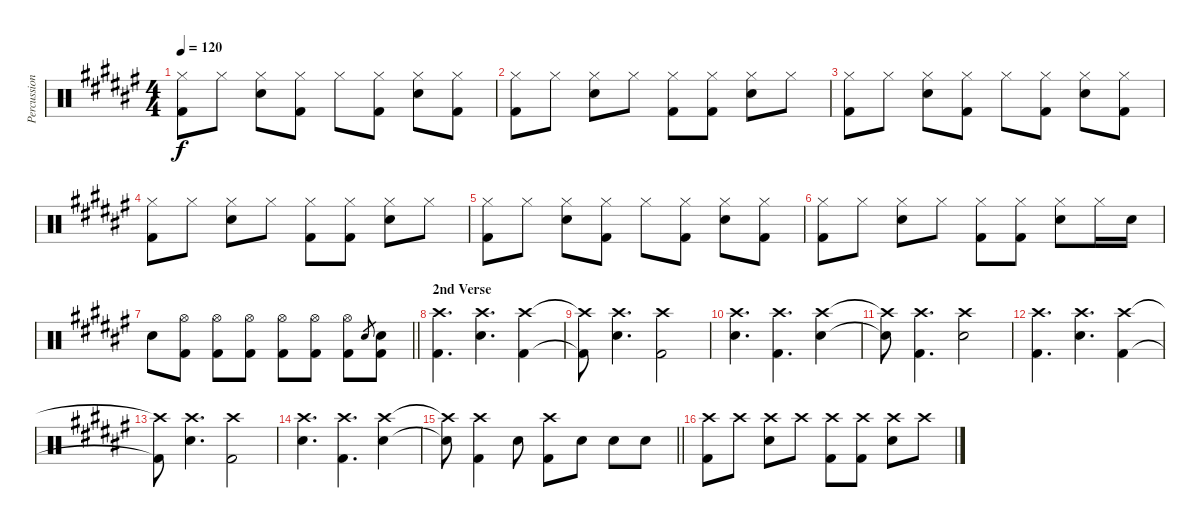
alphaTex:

\track ("Percussion" "Percussion") {instrument percussion}
\staff {score}
\articulation defaults
\ts (4 4)
\tempo 120
\clef neutral
\ks f#
("Hi-Hat (closed)" "Kick (hit) 2").8{dy f} "Hi-Hat (closed)".8 ("Hi-Hat (closed)" "Electric Snare (hit)").8 ("Hi-Hat (closed)" "Kick (hit) 2").8 "Hi-Hat (closed)".8 ("Hi-Hat (closed)" "Kick (hit) 2").8 ("Hi-Hat (closed)" "Electric Snare (hit)").8 ("Hi-Hat (closed)" "Kick (hit) 2").8 |
("Hi-Hat (closed)" "Kick (hit) 2").8 "Hi-Hat (closed)".8 ("Hi-Hat (closed)" "Electric Snare (hit)").8 "Hi-Hat (closed)".8 ("Hi-Hat (closed)" "Kick (hit) 2").8 ("Hi-Hat (closed)" "Kick (hit) 2").8 ("Hi-Hat (closed)" "Electric Snare (hit)").8 "Hi-Hat (closed)".8 |
("Hi-Hat (closed)" "Kick (hit) 2").8 "Hi-Hat (closed)".8 ("Hi-Hat (closed)" "Electric Snare (hit)").8 ("Hi-Hat (closed)" "Kick (hit) 2").8 "Hi-Hat (closed)".8 ("Hi-Hat (closed)" "Kick (hit) 2").8 ("Hi-Hat (closed)" "Electric Snare (hit)").8 ("Hi-Hat (closed)" "Kick (hit) 2").8 |
("Hi-Hat (closed)" "Kick (hit) 2").8 "Hi-Hat (closed)".8 ("Hi-Hat (closed)" "Electric Snare (hit)").8 "Hi-Hat (closed)".8 ("Hi-Hat (closed)" "Kick (hit) 2").8 ("Hi-Hat (closed)" "Kick (hit) 2").8 ("Hi-Hat (closed)" "Electric Snare (hit)").8 "Hi-Hat (closed)".8 |
("Hi-Hat (closed)" "Kick (hit) 2").8 "Hi-Hat (closed)".8 ("Hi-Hat (closed)" "Electric Snare (hit)").8 ("Hi-Hat (closed)" "Kick (hit) 2").8 "Hi-Hat (closed)".8 ("Hi-Hat (closed)" "Kick (hit) 2").8 ("Hi-Hat (closed)" "Electric Snare (hit)").8 ("Hi-Hat (closed)" "Kick (hit) 2").8 |
("Hi-Hat (closed)" "Kick (hit) 2").8 "Hi-Hat (closed)".8 ("Hi-Hat (closed)" "Electric Snare (hit)").8 "Hi-Hat (closed)".8 ("Hi-Hat (closed)" "Kick (hit) 2").8 ("Hi-Hat (closed)" "Kick (hit) 2").8 ("Hi-Hat (closed)" "Electric Snare (hit)").8 "Hi-Hat (closed)".16 "Electric Snare (hit)".16 |
\barLineRight lightlight "Electric Snare (hit)".8
("Hi-Hat (open)" "Kick (hit) 2").8 ("Hi-Hat (open)" "Kick (hit) 2").8 ("Hi-Hat (open)" "Kick (hit) 2").8 ("Hi-Hat (open)" "Kick (hit) 2").8 ("Hi-Hat (open)" "Kick (hit) 2").8 ("Hi-Hat (open)" "Kick (hit) 2").8 "Electric Snare (hit)".8{gr} ("Electric Snare (hit)" "Kick (hit) 2").8 |
\section ("" "2nd Verse")
("Crash high (hit)" "Kick (hit) 2").4{d} ("Crash high (hit)" "Electric Snare (hit)").4{d} ("Crash high (hit)" "Kick (hit) 2").4 |
("Crash high (hit)"{t} "Kick (hit) 2"{t}).8 ("Crash high (hit)" "Electric Snare (hit)").4{d} ("Crash high (hit)" "Kick (hit) 2").2 |
("Crash high (hit)" "Electric Snare (hit)").4{d} ("Crash high (hit)" "Kick (hit) 2").4{d} ("Crash high (hit)" "Electric Snare (hit)").4 |
("Crash high (hit)"{t} "Electric Snare (hit)"{t}).8 ("Crash high (hit)" "Kick (hit) 2").4{d} ("Crash high (hit)" "Electric Snare (hit)").2 |
("Crash high (hit)" "Kick (hit) 2").4{d} ("Crash high (hit)" "Electric Snare (hit)").4{d} ("Crash high (hit)" "Kick (hit) 2").4 |
("Crash high (hit)"{t} "Kick (hit) 2"{t}).8 ("Crash high (hit)" "Electric Snare (hit)").4{d} ("Crash high (hit)" "Kick (hit) 2").2 |
("Crash high (hit)" "Electric Snare (hit)").4{d} ("Crash high (hit)" "Kick (hit) 2").4{d} ("Crash high (hit)" "Electric Snare (hit)").4 |
\barLineRight lightlight
("Crash high (hit)"{t} "Electric Snare (hit)"{t}).8 ("Crash high (hit)" "Kick (hit) 2").4 "Electric Snare (hit)".8 ("Crash high (hit)" "Kick (hit) 2").8 "Electric Snare (hit)".8 "Electric Snare (hit)".8 "Electric Snare (hit)".8 |
("Crash high (hit)" "Kick (hit) 2").8 "Crash high (hit)".8 ("Crash high (hit)" "Electric Snare (hit)").8 "Crash high (hit)".8 ("Crash high (hit)" "Kick (hit) 2").8 ("Crash high (hit)" "Kick (hit) 2").8 ("Crash high (hit)" "Electric Snare (hit)").8 "Crash high (hit)".8
